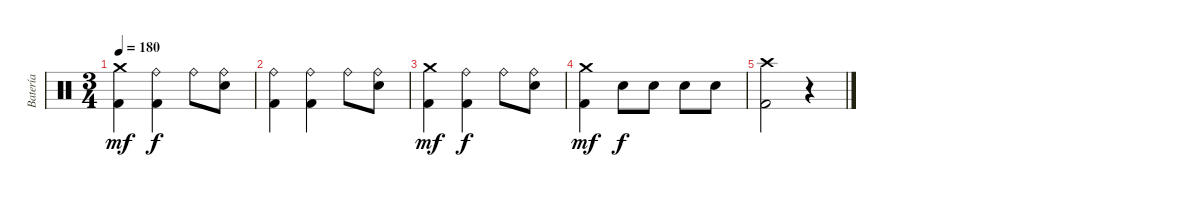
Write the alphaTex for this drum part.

\track ("Batería" "Batería") {instrument percussion}
\staff {score}
\articulation defaults
\ts (3 4)
\tempo 180
\clef neutral
\ks c
("Crash medium (hit)" "Kick (hit) 2").4{dy mf} ("Ride (bell)" "Kick (hit) 2").4{dy f} "Ride (bell)".8 ("Ride (bell)" "Snare (hit) 2").8 |
("Ride (bell)" "Kick (hit) 2").4 ("Ride (bell)" "Kick (hit) 2").4 "Ride (bell)".8 ("Ride (bell)" "Snare (hit) 2").8 |
("Crash medium (hit)" "Kick (hit) 2").4{dy mf} ("Ride (bell)" "Kick (hit) 2").4{dy f} "Ride (bell)".8 ("Ride (bell)" "Snare (hit) 2").8 |
("Crash medium (hit)" "Kick (hit) 2").4{dy mf} "Snare (hit) 2".8{dy f} "Snare (hit) 2".8 "Snare (hit) 2".8 "Snare (hit) 2".8 |
("Crash high (hit)" "Kick (hit) 2").2 r.4
